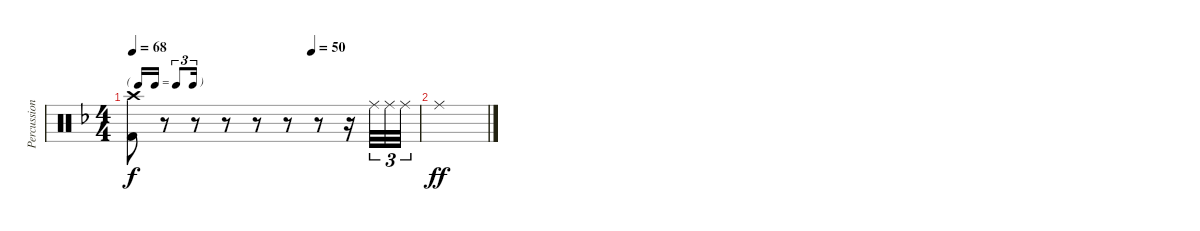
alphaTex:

\track ("Percussion" "Percussion") {instrument percussion}
\staff {score}
\articulation defaults
\ts (4 4)
\tf triplet16th
\tempo 68
\tempo (50 0.625)
\clef neutral
\ks f
("Crash high (hit)" "Kick (hit) 2").8{dy f} r.8 r.8 r.8 r.8 r.8 r.8 r.16 "Ride (middle)".32{tu (3 2)} "Ride (middle)".32{tu (3 2)} "Ride (middle)".32{tu (3 2)} |
"Ride (middle)".1{dy ff}
